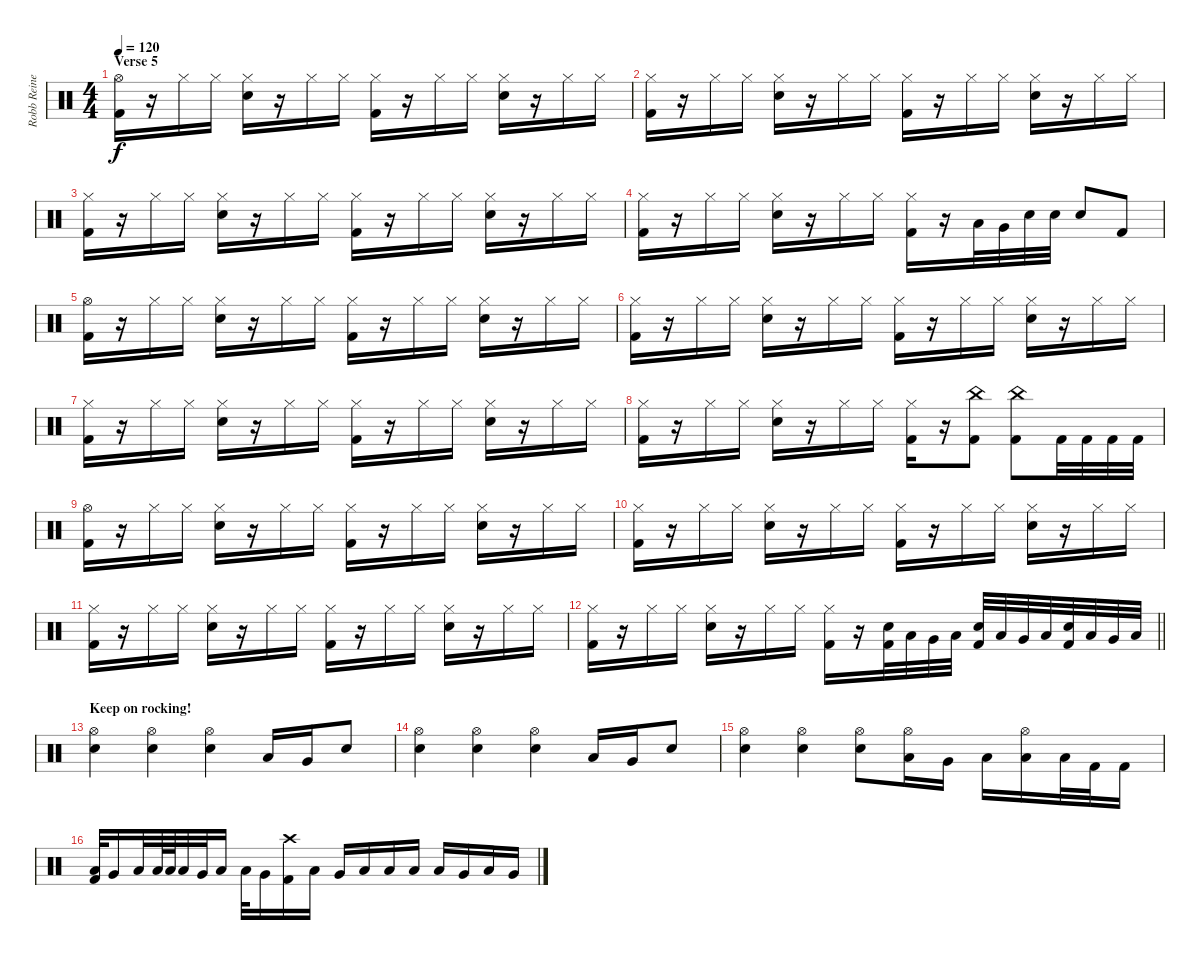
\track ("Robb Reiner" "Robb Reine") {instrument percussion}
\staff {score}
\articulation defaults
\ts (4 4)
\section ("" "Verse 5")
\tempo 120
\clef neutral
\ks c
("Hi-Hat (open)" "Kick (hit) 2").16{dy f} r.16 "Hi-Hat (closed)".16 "Hi-Hat (closed)".16 ("Hi-Hat (closed)" "Snare (hit) 2").16 r.16 "Hi-Hat (closed)".16 "Hi-Hat (closed)".16 ("Hi-Hat (closed)" "Kick (hit) 2").16 r.16 "Hi-Hat (closed)".16 "Hi-Hat (closed)".16 ("Hi-Hat (closed)" "Snare (hit) 2").16 r.16 "Hi-Hat (closed)".16 "Hi-Hat (closed)".16 |
("Hi-Hat (closed)" "Kick (hit) 2").16 r.16 "Hi-Hat (closed)".16 "Hi-Hat (closed)".16 ("Hi-Hat (closed)" "Snare (hit) 2").16 r.16 "Hi-Hat (closed)".16 "Hi-Hat (closed)".16 ("Hi-Hat (closed)" "Kick (hit) 2").16 r.16 "Hi-Hat (closed)".16 "Hi-Hat (closed)".16 ("Hi-Hat (closed)" "Snare (hit) 2").16 r.16 "Hi-Hat (closed)".16 "Hi-Hat (closed)".16 |
("Hi-Hat (closed)" "Kick (hit) 2").16 r.16 "Hi-Hat (closed)".16 "Hi-Hat (closed)".16 ("Hi-Hat (closed)" "Snare (hit) 2").16 r.16 "Hi-Hat (closed)".16 "Hi-Hat (closed)".16 ("Hi-Hat (closed)" "Kick (hit) 2").16 r.16 "Hi-Hat (closed)".16 "Hi-Hat (closed)".16 ("Hi-Hat (closed)" "Snare (hit) 2").16 r.16 "Hi-Hat (closed)".16 "Hi-Hat (closed)".16 |
("Hi-Hat (closed)" "Kick (hit) 2").16 r.16 "Hi-Hat (closed)".16 "Hi-Hat (closed)".16 ("Hi-Hat (closed)" "Snare (hit) 2").16 r.16 "Hi-Hat (closed)".16 "Hi-Hat (closed)".16 ("Hi-Hat (closed)" "Kick (hit) 2").16 r.16 "Low Tom (hit)".32 "Very Low Tom (hit)".32 "Snare (hit) 2".32 "Snare (hit) 2".32 "Snare (hit) 2".8 "Kick (hit) 2".8 |
("Hi-Hat (open)" "Kick (hit) 2").16 r.16 "Hi-Hat (closed)".16 "Hi-Hat (closed)".16 ("Hi-Hat (closed)" "Snare (hit) 2").16 r.16 "Hi-Hat (closed)".16 "Hi-Hat (closed)".16 ("Hi-Hat (closed)" "Kick (hit) 2").16 r.16 "Hi-Hat (closed)".16 "Hi-Hat (closed)".16 ("Hi-Hat (closed)" "Snare (hit) 2").16 r.16 "Hi-Hat (closed)".16 "Hi-Hat (closed)".16 |
("Hi-Hat (closed)" "Kick (hit) 2").16 r.16 "Hi-Hat (closed)".16 "Hi-Hat (closed)".16 ("Hi-Hat (closed)" "Snare (hit) 2").16 r.16 "Hi-Hat (closed)".16 "Hi-Hat (closed)".16 ("Hi-Hat (closed)" "Kick (hit) 2").16 r.16 "Hi-Hat (closed)".16 "Hi-Hat (closed)".16 ("Hi-Hat (closed)" "Snare (hit) 2").16 r.16 "Hi-Hat (closed)".16 "Hi-Hat (closed)".16 |
("Hi-Hat (closed)" "Kick (hit) 2").16 r.16 "Hi-Hat (closed)".16 "Hi-Hat (closed)".16 ("Hi-Hat (closed)" "Snare (hit) 2").16 r.16 "Hi-Hat (closed)".16 "Hi-Hat (closed)".16 ("Hi-Hat (closed)" "Kick (hit) 2").16 r.16 "Hi-Hat (closed)".16 "Hi-Hat (closed)".16 ("Hi-Hat (closed)" "Snare (hit) 2").16 r.16 "Hi-Hat (closed)".16 "Hi-Hat (closed)".16 |
("Hi-Hat (closed)" "Kick (hit) 2").16 r.16 "Hi-Hat (closed)".16 "Hi-Hat (closed)".16 ("Hi-Hat (closed)" "Snare (hit) 2").16 r.16 "Hi-Hat (closed)".16 "Hi-Hat (closed)".16 ("Hi-Hat (closed)" "Kick (hit) 2").16 r.16 ("Kick (hit) 2" "China (hit)").8 ("Kick (hit) 2" "China (hit)").8 "Kick (hit) 2".32 "Kick (hit) 2".32 "Kick (hit) 2".32 "Kick (hit) 2".32 |
("Hi-Hat (open)" "Kick (hit) 2").16 r.16 "Hi-Hat (closed)".16 "Hi-Hat (closed)".16 ("Hi-Hat (closed)" "Snare (hit) 2").16 r.16 "Hi-Hat (closed)".16 "Hi-Hat (closed)".16 ("Hi-Hat (closed)" "Kick (hit) 2").16 r.16 "Hi-Hat (closed)".16 "Hi-Hat (closed)".16 ("Hi-Hat (closed)" "Snare (hit) 2").16 r.16 "Hi-Hat (closed)".16 "Hi-Hat (closed)".16 |
("Hi-Hat (closed)" "Kick (hit) 2").16 r.16 "Hi-Hat (closed)".16 "Hi-Hat (closed)".16 ("Hi-Hat (closed)" "Snare (hit) 2").16 r.16 "Hi-Hat (closed)".16 "Hi-Hat (closed)".16 ("Hi-Hat (closed)" "Kick (hit) 2").16 r.16 "Hi-Hat (closed)".16 "Hi-Hat (closed)".16 ("Hi-Hat (closed)" "Snare (hit) 2").16 r.16 "Hi-Hat (closed)".16 "Hi-Hat (closed)".16 |
("Hi-Hat (closed)" "Kick (hit) 2").16 r.16 "Hi-Hat (closed)".16 "Hi-Hat (closed)".16 ("Hi-Hat (closed)" "Snare (hit) 2").16 r.16 "Hi-Hat (closed)".16 "Hi-Hat (closed)".16 ("Hi-Hat (closed)" "Kick (hit) 2").16 r.16 "Hi-Hat (closed)".16 "Hi-Hat (closed)".16 ("Hi-Hat (closed)" "Snare (hit) 2").16 r.16 "Hi-Hat (closed)".16 "Hi-Hat (closed)".16 |
\barLineRight lightlight
("Hi-Hat (closed)" "Kick (hit) 2").16 r.16 "Hi-Hat (closed)".16 "Hi-Hat (closed)".16 ("Hi-Hat (closed)" "Snare (hit) 2").16 r.16 "Hi-Hat (closed)".16 "Hi-Hat (closed)".16 ("Hi-Hat (closed)" "Kick (hit) 2").16 r.16 ("Snare (hit) 2" "Kick (hit) 2").32 "Low Tom (hit)".32 "Very Low Tom (hit)".32 "Low Floor Tom (hit)".32 ("Snare (hit) 2" "Kick (hit) 2").32 "Low Tom (hit)".32 "Very Low Tom (hit)".32 "Low Floor Tom (hit)".32 ("Snare (hit) 2" "Kick (hit) 2").32 "Low Tom (hit)".32 "Very Low Tom (hit)".32 "Low Floor Tom (hit)".32 |
\section ("" "Keep on rocking!")
("Snare (hit) 2" "Hi-Hat (open)").4 ("Snare (hit) 2" "Hi-Hat (open)").4 ("Snare (hit) 2" "Hi-Hat (open)").4 "Low Tom (hit)".16 "Very Low Tom (hit)".16 "Snare (hit) 2".8 |
("Snare (hit) 2" "Hi-Hat (open)").4 ("Snare (hit) 2" "Hi-Hat (open)").4 ("Snare (hit) 2" "Hi-Hat (open)").4 "Low Tom (hit)".16 "Very Low Tom (hit)".16 "Snare (hit) 2".8 |
("Snare (hit) 2" "Hi-Hat (open)").4 ("Snare (hit) 2" "Hi-Hat (open)").4 ("Snare (hit) 2" "Hi-Hat (open)").8 ("Low Tom (hit)" "Hi-Hat (open)").16 "Very Low Tom (hit)".16 "Low Tom (hit)".16 ("Low Floor Tom (hit)" "Hi-Hat (open)").16 "Low Tom (hit)".32 "Kick (hit) 2".32 "Kick (hit) 2".16 |
("Low Tom (hit)" "Kick (hit) 2").32 "Very Low Tom (hit)".16 "Low Tom (hit)".32 "Low Tom (hit)".64 "Low Tom (hit)".64 "Low Tom (hit)".32 "Very Low Tom (hit)".32 "Low Tom (hit)".16 "Low Tom (hit)".32 "Very Low Tom (hit)".16 ("Crash high (hit)" "Kick (hit) 2").16 "Low Tom (hit)".16 "Very Low Tom (hit)".16 "Low Tom (hit)".16 "Low Tom (hit)".16 "Low Tom (hit)".16 "Low Tom (hit)".16 "Very Low Tom (hit)".16 "Low Tom (hit)".16 "Very Low Tom (hit)".16
